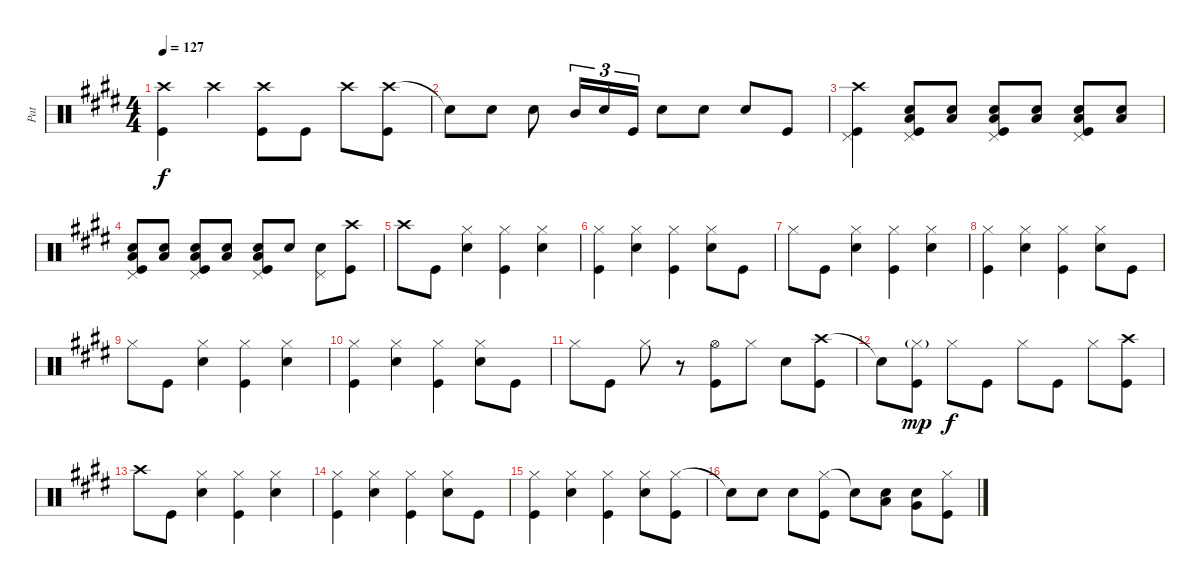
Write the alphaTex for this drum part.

\track ("Pat" "Pat") {instrument percussion}
\staff {score}
\articulation defaults
\ts (4 4)
\tempo 127
\clef neutral
\ks e
("Crash high (hit)" "Kick (hit)").4{dy f} "Crash high (hit)".4 ("Crash high (hit)" "Kick (hit)").8 "Kick (hit)".8 "Crash high (hit)".8 ("Crash high (hit)" "Kick (hit)").8 |
"Snare (hit)"{t}.8 "Snare (hit) 2".8 "Snare (hit) 2".8 "Mid Tom (hit)".16{tu (3 2)} "Snare (hit) 2".16{tu (3 2)} "Kick (hit)".16{tu (3 2)} "Snare (hit) 2".8 "Snare (hit) 2".8 "Snare (hit) 2".8 "Kick (hit)".8 |
("Crash high (hit)" "Kick (hit)" "Pedal Hi-Hat (hit)").4 ("Snare (hit) 2" "Low Tom (hit)" "Kick (hit)" "Pedal Hi-Hat (hit)").8 ("Snare (hit) 2" "Low Tom (hit)").8 ("Snare (hit) 2" "Low Tom (hit)" "Pedal Hi-Hat (hit)" "Kick (hit)").8 ("Snare (hit) 2" "Low Tom (hit)").8 ("Snare (hit) 2" "Low Tom (hit)" "Kick (hit)" "Pedal Hi-Hat (hit)").8 ("Snare (hit) 2" "Low Tom (hit)").8 |
("Snare (hit) 2" "Low Tom (hit)" "Pedal Hi-Hat (hit)" "Kick (hit)").8 ("Snare (hit) 2" "Low Tom (hit)").8 ("Snare (hit) 2" "Low Tom (hit)" "Kick (hit)" "Pedal Hi-Hat (hit)").8 ("Snare (hit) 2" "Low Tom (hit)").8 ("Snare (hit) 2" "Low Tom (hit)" "Kick (hit)" "Pedal Hi-Hat (hit)").8 "Snare (hit) 2".8 ("Snare (hit) 2" "Pedal Hi-Hat (hit)").8 ("Crash high (hit)" "Kick (hit)").8 |
"Crash high (hit)".8 "Kick (hit)".8 ("Hi-Hat (closed)" "Snare (hit) 2").4 ("Hi-Hat (closed)" "Kick (hit)").4 ("Hi-Hat (closed)" "Snare (hit) 2").4 |
("Hi-Hat (closed)" "Kick (hit)").4 ("Hi-Hat (closed)" "Snare (hit) 2").4 ("Hi-Hat (closed)" "Kick (hit)").4 ("Hi-Hat (closed)" "Snare (hit) 2").8 "Kick (hit)".8 |
"Hi-Hat (closed)".8 "Kick (hit)".8 ("Hi-Hat (closed)" "Snare (hit) 2").4 ("Hi-Hat (closed)" "Kick (hit)").4 ("Hi-Hat (closed)" "Snare (hit) 2").4 |
("Hi-Hat (closed)" "Kick (hit)").4 ("Hi-Hat (closed)" "Snare (hit) 2").4 ("Hi-Hat (closed)" "Kick (hit)").4 ("Hi-Hat (closed)" "Snare (hit) 2").8 "Kick (hit)".8 |
"Hi-Hat (closed)".8 "Kick (hit)".8 ("Hi-Hat (closed)" "Snare (hit) 2").4 ("Hi-Hat (closed)" "Kick (hit)").4 ("Hi-Hat (closed)" "Snare (hit) 2").4 |
("Hi-Hat (closed)" "Kick (hit)").4 ("Hi-Hat (closed)" "Snare (hit) 2").4 ("Hi-Hat (closed)" "Kick (hit)").4 ("Hi-Hat (closed)" "Snare (hit) 2").8 "Kick (hit)".8 |
"Hi-Hat (closed)".8 "Kick (hit)".8 "Hi-Hat (closed)".8 r.8 ("Hi-Hat (open)" "Kick (hit)").8 "Hi-Hat (closed)".8 "Snare (hit) 2".8 ("Crash high (hit)" "Kick (hit)").8 |
"Snare (hit)"{t}.8 ("Hi-Hat (closed)"{g} "Kick (hit)").8{dy mp} "Hi-Hat (closed)".8{dy f} "Kick (hit)".8 "Hi-Hat (closed)".8 "Kick (hit)".8 "Hi-Hat (closed)".8 ("Crash high (hit)" "Kick (hit)").8 |
"Crash high (hit)".8 "Kick (hit)".8 ("Hi-Hat (closed)" "Snare (hit) 2").4 ("Hi-Hat (closed)" "Kick (hit)").4 ("Hi-Hat (closed)" "Snare (hit) 2").4 |
("Hi-Hat (closed)" "Kick (hit)").4 ("Hi-Hat (closed)" "Snare (hit) 2").4 ("Hi-Hat (closed)" "Kick (hit)").4 ("Hi-Hat (closed)" "Snare (hit) 2").8 "Kick (hit)".8 |
("Hi-Hat (closed)" "Kick (hit)").4 ("Hi-Hat (closed)" "Snare (hit) 2").4 ("Hi-Hat (closed)" "Kick (hit)").4 ("Hi-Hat (closed)" "Snare (hit) 2").8 ("Hi-Hat (closed)" "Kick (hit)").8 |
"Snare (hit)"{t}.8 "Snare (hit) 2".8 "Snare (hit) 2".8 ("Hi-Hat (closed)" "Kick (hit)").8 "Snare (hit)"{t}.8 ("Snare (hit) 2" "Low Tom (hit)").8 ("Very Low Tom (hit)" "Snare (hit) 2").8 ("Hi-Hat (closed)" "Kick (hit)").8
